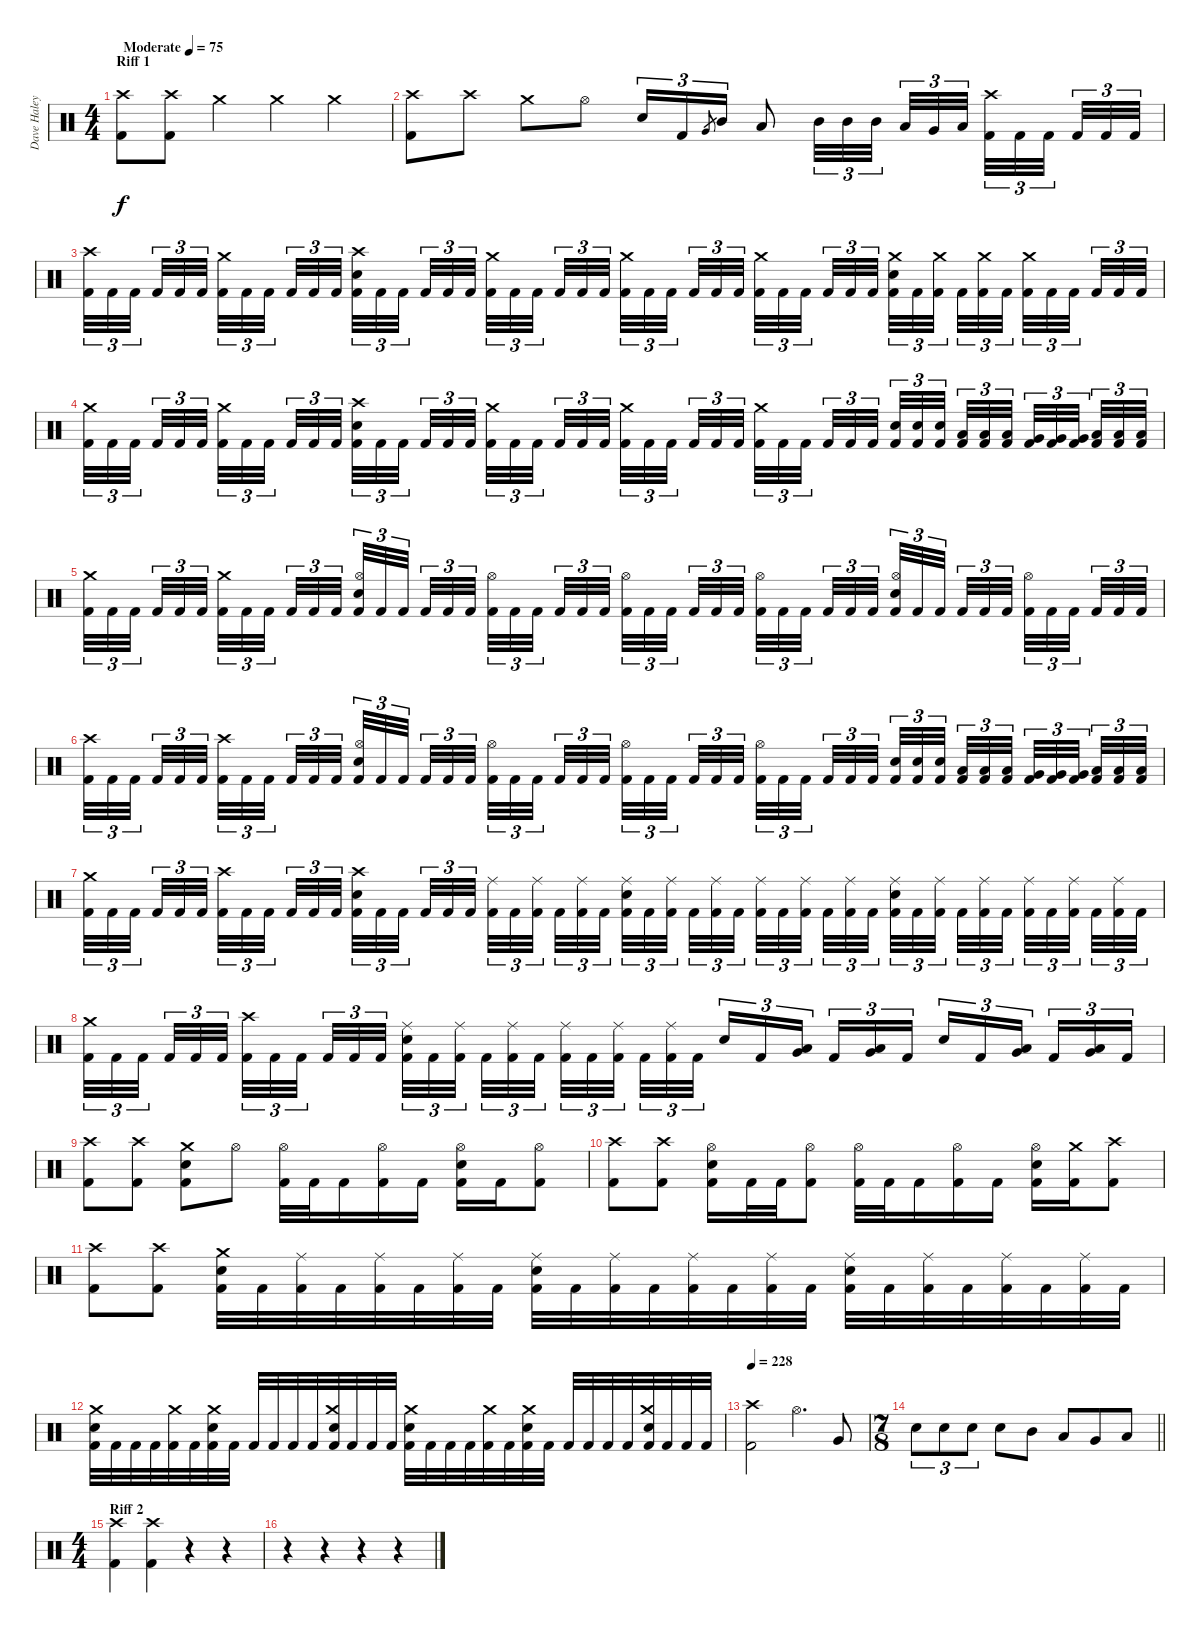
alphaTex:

\track ("Dave Haley" "Dave Haley") {instrument percussion}
\staff {score}
\articulation defaults
\ts (4 4)
\section ("" "Riff 1")
\tempo (75 "Moderate")
\clef neutral
\ks c
("Crash high (hit)" "Kick (hit) 2").8{dy f} ("Crash high (hit)" "Kick (hit) 2").8 "Crash medium (hit)".4 "Crash medium (hit)".4 "Crash medium (hit)".4 |
("Crash high (hit)" "Kick (hit) 2").8 "Crash high (hit)".8 "Crash medium (hit)".8 "Hi-Hat (open)".8 "Snare (hit) 2".16{tu (3 2)} "Kick (hit) 2".16{tu (3 2)} "Very Low Tom (hit)".8{gr} "Mid Tom (hit)".16{tu (3 2)} "Low Tom (hit)".8 "Mid Tom (hit)".32{tu (3 2)} "Mid Tom (hit)".32{tu (3 2)} "Mid Tom (hit)".32{tu (3 2) beam splitsecondary} "Low Tom (hit)".32{tu (3 2)} "Very Low Tom (hit)".32{tu (3 2)} "Low Floor Tom (hit)".32{tu (3 2) beam splitsecondary} ("Crash high (hit)" "Kick (hit) 2").32{tu (3 2)} "Kick (hit) 2".32{tu (3 2)} "Kick (hit) 2".32{tu (3 2) beam splitsecondary} "Kick (hit) 2".32{tu (3 2)} "Kick (hit) 2".32{tu (3 2)} "Kick (hit) 2".32{tu (3 2)} |
("Crash high (hit)" "Kick (hit) 2").32{tu (3 2)} "Kick (hit) 2".32{tu (3 2)} "Kick (hit) 2".32{tu (3 2) beam splitsecondary} "Kick (hit) 2".32{tu (3 2)} "Kick (hit) 2".32{tu (3 2)} "Kick (hit) 2".32{tu (3 2) beam splitsecondary} ("Crash medium (hit)" "Kick (hit) 2").32{tu (3 2)} "Kick (hit) 2".32{tu (3 2)} "Kick (hit) 2".32{tu (3 2) beam splitsecondary} "Kick (hit) 2".32{tu (3 2)} "Kick (hit) 2".32{tu (3 2)} "Kick (hit) 2".32{tu (3 2)} ("Crash high (hit)" "Snare (hit) 2" "Kick (hit) 2").32{tu (3 2)} "Kick (hit) 2".32{tu (3 2)} "Kick (hit) 2".32{tu (3 2) beam splitsecondary} "Kick (hit) 2".32{tu (3 2)} "Kick (hit) 2".32{tu (3 2)} "Kick (hit) 2".32{tu (3 2) beam splitsecondary} ("Crash medium (hit)" "Kick (hit) 2").32{tu (3 2)} "Kick (hit) 2".32{tu (3 2)} "Kick (hit) 2".32{tu (3 2) beam splitsecondary} "Kick (hit) 2".32{tu (3 2)} "Kick (hit) 2".32{tu (3 2)} "Kick (hit) 2".32{tu (3 2)} ("Crash medium (hit)" "Kick (hit) 2").32{tu (3 2)} "Kick (hit) 2".32{tu (3 2)} "Kick (hit) 2".32{tu (3 2) beam splitsecondary} "Kick (hit) 2".32{tu (3 2)} "Kick (hit) 2".32{tu (3 2)} "Kick (hit) 2".32{tu (3 2) beam splitsecondary} ("Crash medium (hit)" "Kick (hit) 2").32{tu (3 2)} "Kick (hit) 2".32{tu (3 2)} "Kick (hit) 2".32{tu (3 2) beam splitsecondary} "Kick (hit) 2".32{tu (3 2)} "Kick (hit) 2".32{tu (3 2)} "Kick (hit) 2".32{tu (3 2)} ("Crash medium (hit)" "Snare (hit) 2" "Kick (hit) 2").32{tu (3 2)} "Kick (hit) 2".32{tu (3 2)} ("Crash medium (hit)" "Kick (hit) 2").32{tu (3 2) beam splitsecondary} "Kick (hit) 2".32{tu (3 2)} ("Crash medium (hit)" "Kick (hit) 2").32{tu (3 2)} "Kick (hit) 2".32{tu (3 2) beam splitsecondary} ("Crash medium (hit)" "Kick (hit) 2").32{tu (3 2)} "Kick (hit) 2".32{tu (3 2)} "Kick (hit) 2".32{tu (3 2) beam splitsecondary} "Kick (hit) 2".32{tu (3 2)} "Kick (hit) 2".32{tu (3 2)} "Kick (hit) 2".32{tu (3 2)} |
("Crash medium (hit)" "Kick (hit) 2").32{tu (3 2)} "Kick (hit) 2".32{tu (3 2)} "Kick (hit) 2".32{tu (3 2) beam splitsecondary} "Kick (hit) 2".32{tu (3 2)} "Kick (hit) 2".32{tu (3 2)} "Kick (hit) 2".32{tu (3 2) beam splitsecondary} ("Crash medium (hit)" "Kick (hit) 2").32{tu (3 2)} "Kick (hit) 2".32{tu (3 2)} "Kick (hit) 2".32{tu (3 2) beam splitsecondary} "Kick (hit) 2".32{tu (3 2)} "Kick (hit) 2".32{tu (3 2)} "Kick (hit) 2".32{tu (3 2)} ("Crash high (hit)" "Snare (hit) 2" "Kick (hit) 2").32{tu (3 2)} "Kick (hit) 2".32{tu (3 2)} "Kick (hit) 2".32{tu (3 2) beam splitsecondary} "Kick (hit) 2".32{tu (3 2)} "Kick (hit) 2".32{tu (3 2)} "Kick (hit) 2".32{tu (3 2) beam splitsecondary} ("Crash medium (hit)" "Kick (hit) 2").32{tu (3 2)} "Kick (hit) 2".32{tu (3 2)} "Kick (hit) 2".32{tu (3 2) beam splitsecondary} "Kick (hit) 2".32{tu (3 2)} "Kick (hit) 2".32{tu (3 2)} "Kick (hit) 2".32{tu (3 2)} ("Crash medium (hit)" "Kick (hit) 2").32{tu (3 2)} "Kick (hit) 2".32{tu (3 2)} "Kick (hit) 2".32{tu (3 2) beam splitsecondary} "Kick (hit) 2".32{tu (3 2)} "Kick (hit) 2".32{tu (3 2)} "Kick (hit) 2".32{tu (3 2) beam splitsecondary} ("Crash medium (hit)" "Kick (hit) 2").32{tu (3 2)} "Kick (hit) 2".32{tu (3 2)} "Kick (hit) 2".32{tu (3 2) beam splitsecondary} "Kick (hit) 2".32{tu (3 2)} "Kick (hit) 2".32{tu (3 2)} "Kick (hit) 2".32{tu (3 2)} ("Snare (hit) 2" "Kick (hit) 2").32{tu (3 2)} ("Snare (hit) 2" "Kick (hit) 2").32{tu (3 2)} ("Snare (hit) 2" "Kick (hit) 2").32{tu (3 2) beam splitsecondary} ("Low Tom (hit)" "Kick (hit) 2").32{tu (3 2)} ("Low Tom (hit)" "Kick (hit) 2").32{tu (3 2)} ("Low Tom (hit)" "Kick (hit) 2").32{tu (3 2) beam splitsecondary} ("Very Low Tom (hit)" "Kick (hit) 2").32{tu (3 2)} ("Very Low Tom (hit)" "Kick (hit) 2").32{tu (3 2)} ("Very Low Tom (hit)" "Kick (hit) 2").32{tu (3 2) beam splitsecondary} ("Low Floor Tom (hit)" "Kick (hit) 2").32{tu (3 2)} ("Low Floor Tom (hit)" "Kick (hit) 2").32{tu (3 2)} ("Low Floor Tom (hit)" "Kick (hit) 2").32{tu (3 2)} |
("Crash medium (hit)" "Kick (hit) 2").32{tu (3 2)} "Kick (hit) 2".32{tu (3 2)} "Kick (hit) 2".32{tu (3 2) beam splitsecondary} "Kick (hit) 2".32{tu (3 2)} "Kick (hit) 2".32{tu (3 2)} "Kick (hit) 2".32{tu (3 2) beam splitsecondary} ("Crash medium (hit)" "Kick (hit) 2").32{tu (3 2)} "Kick (hit) 2".32{tu (3 2)} "Kick (hit) 2".32{tu (3 2) beam splitsecondary} "Kick (hit) 2".32{tu (3 2)} "Kick (hit) 2".32{tu (3 2)} "Kick (hit) 2".32{tu (3 2)} ("Hi-Hat (open)" "Snare (hit) 2" "Kick (hit) 2").32{tu (3 2)} "Kick (hit) 2".32{tu (3 2)} "Kick (hit) 2".32{tu (3 2) beam splitsecondary} "Kick (hit) 2".32{tu (3 2)} "Kick (hit) 2".32{tu (3 2)} "Kick (hit) 2".32{tu (3 2) beam splitsecondary} ("Hi-Hat (open)" "Kick (hit) 2").32{tu (3 2)} "Kick (hit) 2".32{tu (3 2)} "Kick (hit) 2".32{tu (3 2) beam splitsecondary} "Kick (hit) 2".32{tu (3 2)} "Kick (hit) 2".32{tu (3 2)} "Kick (hit) 2".32{tu (3 2)} ("Hi-Hat (open)" "Kick (hit) 2").32{tu (3 2)} "Kick (hit) 2".32{tu (3 2)} "Kick (hit) 2".32{tu (3 2) beam splitsecondary} "Kick (hit) 2".32{tu (3 2)} "Kick (hit) 2".32{tu (3 2)} "Kick (hit) 2".32{tu (3 2) beam splitsecondary} ("Hi-Hat (open)" "Kick (hit) 2").32{tu (3 2)} "Kick (hit) 2".32{tu (3 2)} "Kick (hit) 2".32{tu (3 2) beam splitsecondary} "Kick (hit) 2".32{tu (3 2)} "Kick (hit) 2".32{tu (3 2)} "Kick (hit) 2".32{tu (3 2)} ("Hi-Hat (open)" "Snare (hit) 2" "Kick (hit) 2").32{tu (3 2)} "Kick (hit) 2".32{tu (3 2)} "Kick (hit) 2".32{tu (3 2) beam splitsecondary} "Kick (hit) 2".32{tu (3 2)} "Kick (hit) 2".32{tu (3 2)} "Kick (hit) 2".32{tu (3 2) beam splitsecondary} ("Hi-Hat (open)" "Kick (hit) 2").32{tu (3 2)} "Kick (hit) 2".32{tu (3 2)} "Kick (hit) 2".32{tu (3 2) beam splitsecondary} "Kick (hit) 2".32{tu (3 2)} "Kick (hit) 2".32{tu (3 2)} "Kick (hit) 2".32{tu (3 2)} |
("Crash high (hit)" "Kick (hit) 2").32{tu (3 2)} "Kick (hit) 2".32{tu (3 2)} "Kick (hit) 2".32{tu (3 2) beam splitsecondary} "Kick (hit) 2".32{tu (3 2)} "Kick (hit) 2".32{tu (3 2)} "Kick (hit) 2".32{tu (3 2) beam splitsecondary} ("Crash high (hit)" "Kick (hit) 2").32{tu (3 2)} "Kick (hit) 2".32{tu (3 2)} "Kick (hit) 2".32{tu (3 2) beam splitsecondary} "Kick (hit) 2".32{tu (3 2)} "Kick (hit) 2".32{tu (3 2)} "Kick (hit) 2".32{tu (3 2)} ("Hi-Hat (open)" "Snare (hit) 2" "Kick (hit) 2").32{tu (3 2)} "Kick (hit) 2".32{tu (3 2)} "Kick (hit) 2".32{tu (3 2) beam splitsecondary} "Kick (hit) 2".32{tu (3 2)} "Kick (hit) 2".32{tu (3 2)} "Kick (hit) 2".32{tu (3 2) beam splitsecondary} ("Hi-Hat (open)" "Kick (hit) 2").32{tu (3 2)} "Kick (hit) 2".32{tu (3 2)} "Kick (hit) 2".32{tu (3 2) beam splitsecondary} "Kick (hit) 2".32{tu (3 2)} "Kick (hit) 2".32{tu (3 2)} "Kick (hit) 2".32{tu (3 2)} ("Hi-Hat (open)" "Kick (hit) 2").32{tu (3 2)} "Kick (hit) 2".32{tu (3 2)} "Kick (hit) 2".32{tu (3 2) beam splitsecondary} "Kick (hit) 2".32{tu (3 2)} "Kick (hit) 2".32{tu (3 2)} "Kick (hit) 2".32{tu (3 2) beam splitsecondary} ("Hi-Hat (open)" "Kick (hit) 2").32{tu (3 2)} "Kick (hit) 2".32{tu (3 2)} "Kick (hit) 2".32{tu (3 2) beam splitsecondary} "Kick (hit) 2".32{tu (3 2)} "Kick (hit) 2".32{tu (3 2)} "Kick (hit) 2".32{tu (3 2)} ("Snare (hit) 2" "Kick (hit) 2").32{tu (3 2)} ("Snare (hit) 2" "Kick (hit) 2").32{tu (3 2)} ("Snare (hit) 2" "Kick (hit) 2").32{tu (3 2) beam splitsecondary} ("Low Tom (hit)" "Kick (hit) 2").32{tu (3 2)} ("Low Tom (hit)" "Kick (hit) 2").32{tu (3 2)} ("Low Tom (hit)" "Kick (hit) 2").32{tu (3 2) beam splitsecondary} ("Very Low Tom (hit)" "Kick (hit) 2").32{tu (3 2)} ("Very Low Tom (hit)" "Kick (hit) 2").32{tu (3 2)} ("Very Low Tom (hit)" "Kick (hit) 2").32{tu (3 2) beam splitsecondary} ("Low Floor Tom (hit)" "Kick (hit) 2").32{tu (3 2)} ("Low Floor Tom (hit)" "Kick (hit) 2").32{tu (3 2)} ("Low Floor Tom (hit)" "Kick (hit) 2").32{tu (3 2)} |
("Crash medium (hit)" "Kick (hit) 2").32{tu (3 2)} "Kick (hit) 2".32{tu (3 2)} "Kick (hit) 2".32{tu (3 2) beam splitsecondary} "Kick (hit) 2".32{tu (3 2)} "Kick (hit) 2".32{tu (3 2)} "Kick (hit) 2".32{tu (3 2) beam splitsecondary} ("Crash high (hit)" "Kick (hit) 2").32{tu (3 2)} "Kick (hit) 2".32{tu (3 2)} "Kick (hit) 2".32{tu (3 2) beam splitsecondary} "Kick (hit) 2".32{tu (3 2)} "Kick (hit) 2".32{tu (3 2)} "Kick (hit) 2".32{tu (3 2)} ("Crash high (hit)" "Snare (hit) 2" "Kick (hit) 2").32{tu (3 2)} "Kick (hit) 2".32{tu (3 2)} "Kick (hit) 2".32{tu (3 2) beam splitsecondary} "Kick (hit) 2".32{tu (3 2)} "Kick (hit) 2".32{tu (3 2)} "Kick (hit) 2".32{tu (3 2) beam splitsecondary} ("Ride (middle)" "Kick (hit) 2").32{tu (3 2)} "Kick (hit) 2".32{tu (3 2)} ("Ride (middle)" "Kick (hit) 2").32{tu (3 2) beam splitsecondary} "Kick (hit) 2".32{tu (3 2)} ("Ride (middle)" "Kick (hit) 2").32{tu (3 2)} "Kick (hit) 2".32{tu (3 2)} ("Ride (middle)" "Snare (hit) 2" "Kick (hit) 2").32{tu (3 2)} "Kick (hit) 2".32{tu (3 2)} ("Ride (middle)" "Kick (hit) 2").32{tu (3 2) beam splitsecondary} "Kick (hit) 2".32{tu (3 2)} ("Ride (middle)" "Kick (hit) 2").32{tu (3 2)} "Kick (hit) 2".32{tu (3 2) beam splitsecondary} ("Ride (middle)" "Kick (hit) 2").32{tu (3 2)} "Kick (hit) 2".32{tu (3 2)} ("Ride (middle)" "Kick (hit) 2").32{tu (3 2) beam splitsecondary} "Kick (hit) 2".32{tu (3 2)} ("Ride (middle)" "Kick (hit) 2").32{tu (3 2)} "Kick (hit) 2".32{tu (3 2)} ("Ride (middle)" "Snare (hit) 2" "Kick (hit) 2").32{tu (3 2)} "Kick (hit) 2".32{tu (3 2)} ("Ride (middle)" "Kick (hit) 2").32{tu (3 2) beam splitsecondary} "Kick (hit) 2".32{tu (3 2)} ("Ride (middle)" "Kick (hit) 2").32{tu (3 2)} "Kick (hit) 2".32{tu (3 2) beam splitsecondary} ("Ride (middle)" "Kick (hit) 2").32{tu (3 2)} "Kick (hit) 2".32{tu (3 2)} ("Ride (middle)" "Kick (hit) 2").32{tu (3 2) beam splitsecondary} "Kick (hit) 2".32{tu (3 2)} ("Ride (middle)" "Kick (hit) 2").32{tu (3 2)} "Kick (hit) 2".32{tu (3 2)} |
("Crash medium (hit)" "Kick (hit) 2").32{tu (3 2)} "Kick (hit) 2".32{tu (3 2)} "Kick (hit) 2".32{tu (3 2) beam splitsecondary} "Kick (hit) 2".32{tu (3 2)} "Kick (hit) 2".32{tu (3 2)} "Kick (hit) 2".32{tu (3 2) beam splitsecondary} ("Crash high (hit)" "Kick (hit) 2").32{tu (3 2)} "Kick (hit) 2".32{tu (3 2)} "Kick (hit) 2".32{tu (3 2) beam splitsecondary} "Kick (hit) 2".32{tu (3 2)} "Kick (hit) 2".32{tu (3 2)} "Kick (hit) 2".32{tu (3 2)} ("Ride (middle)" "Snare (hit) 2" "Kick (hit) 2").32{tu (3 2)} "Kick (hit) 2".32{tu (3 2)} ("Ride (middle)" "Kick (hit) 2").32{tu (3 2) beam splitsecondary} "Kick (hit) 2".32{tu (3 2)} ("Ride (middle)" "Kick (hit) 2").32{tu (3 2)} "Kick (hit) 2".32{tu (3 2) beam splitsecondary} ("Ride (middle)" "Kick (hit) 2").32{tu (3 2)} "Kick (hit) 2".32{tu (3 2)} ("Ride (middle)" "Kick (hit) 2").32{tu (3 2) beam splitsecondary} "Kick (hit) 2".32{tu (3 2)} ("Ride (middle)" "Kick (hit) 2").32{tu (3 2)} "Kick (hit) 2".32{tu (3 2)} "Snare (hit) 2".16{tu (3 2)} "Kick (hit) 2".16{tu (3 2)} ("Very Low Tom (hit)" "Low Tom (hit)").16{tu (3 2) beam splitsecondary} "Kick (hit) 2".16{tu (3 2)} ("Very Low Tom (hit)" "Low Tom (hit)").16{tu (3 2)} "Kick (hit) 2".16{tu (3 2)} "Snare (hit) 2".16{tu (3 2)} "Kick (hit) 2".16{tu (3 2)} ("Very Low Tom (hit)" "Low Tom (hit)").16{tu (3 2) beam splitsecondary} "Kick (hit) 2".16{tu (3 2)} ("Very Low Tom (hit)" "Low Tom (hit)").16{tu (3 2)} "Kick (hit) 2".16{tu (3 2)} |
("Crash high (hit)" "Kick (hit) 2").8 ("Crash high (hit)" "Kick (hit) 2").8 ("Crash medium (hit)" "Snare (hit) 2" "Kick (hit) 2").8 "Hi-Hat (open)".8 ("Hi-Hat (open)" "Kick (hit) 2").32 "Kick (hit) 2".32 "Kick (hit) 2".16 ("Hi-Hat (open)" "Kick (hit) 2").16 "Kick (hit) 2".16 ("Hi-Hat (open)" "Snare (hit) 2" "Kick (hit) 2").16 "Kick (hit) 2".16 ("Hi-Hat (open)" "Kick (hit) 2").8 |
("Crash high (hit)" "Kick (hit) 2").8 ("Crash high (hit)" "Kick (hit) 2").8 ("Hi-Hat (open)" "Snare (hit) 2" "Kick (hit) 2").16 "Kick (hit) 2".32 "Kick (hit) 2".32 ("Hi-Hat (open)" "Kick (hit) 2").8 ("Hi-Hat (open)" "Kick (hit) 2").32 "Kick (hit) 2".32 "Kick (hit) 2".16 ("Hi-Hat (open)" "Kick (hit) 2").16 "Kick (hit) 2".16 ("Hi-Hat (open)" "Snare (hit) 2" "Kick (hit) 2").16 ("Crash medium (hit)" "Kick (hit) 2").16 ("Crash high (hit)" "Kick (hit) 2").8 |
("Crash high (hit)" "Kick (hit) 2").8 ("Crash high (hit)" "Kick (hit) 2").8 ("Crash medium (hit)" "Snare (hit) 2" "Kick (hit) 2").32 "Kick (hit) 2".32 ("Ride (middle)" "Kick (hit) 2").32 "Kick (hit) 2".32 ("Ride (middle)" "Kick (hit) 2").32 "Kick (hit) 2".32 ("Ride (middle)" "Kick (hit) 2").32 "Kick (hit) 2".32 ("Ride (middle)" "Snare (hit) 2" "Kick (hit) 2").32 "Kick (hit) 2".32 ("Ride (middle)" "Kick (hit) 2").32 "Kick (hit) 2".32 ("Ride (middle)" "Kick (hit) 2").32 "Kick (hit) 2".32 ("Ride (middle)" "Kick (hit) 2").32 "Kick (hit) 2".32 ("Ride (middle)" "Snare (hit) 2" "Kick (hit) 2").32 "Kick (hit) 2".32 ("Ride (middle)" "Kick (hit) 2").32 "Kick (hit) 2".32 ("Ride (middle)" "Kick (hit) 2").32 "Kick (hit) 2".32 ("Ride (middle)" "Kick (hit) 2").32 "Kick (hit) 2".32 |
("Crash medium (hit)" "Snare (hit) 2" "Kick (hit) 2").32 "Kick (hit) 2".32 "Kick (hit) 2".32 "Kick (hit) 2".32 ("Crash medium (hit)" "Kick (hit) 2").32 "Kick (hit) 2".32 ("Crash medium (hit)" "Snare (hit) 2" "Kick (hit) 2").32 "Kick (hit) 2".32 "Kick (hit) 2".32 "Kick (hit) 2".32 "Kick (hit) 2".32 "Kick (hit) 2".32 ("Crash medium (hit)" "Snare (hit) 2" "Kick (hit) 2").32 "Kick (hit) 2".32 "Kick (hit) 2".32 "Kick (hit) 2".32 ("Crash medium (hit)" "Snare (hit) 2" "Kick (hit) 2").32 "Kick (hit) 2".32 "Kick (hit) 2".32 "Kick (hit) 2".32 ("Crash medium (hit)" "Kick (hit) 2").32 "Kick (hit) 2".32 ("Crash medium (hit)" "Snare (hit) 2" "Kick (hit) 2").32 "Kick (hit) 2".32 "Kick (hit) 2".32 "Kick (hit) 2".32 "Kick (hit) 2".32 "Kick (hit) 2".32 ("Crash medium (hit)" "Snare (hit) 2" "Kick (hit) 2").32 "Kick (hit) 2".32 "Kick (hit) 2".32 "Kick (hit) 2".32 |
\tempo 228
("Crash high (hit)" "Kick (hit) 2").2 "Hi-Hat (open)".4{d} "Very Low Tom (hit)".8 |
\ts (7 8)
\barLineRight lightlight "Snare (hit) 2".8{tu (3 2)} "Snare (hit) 2".8{tu (3 2)} "Snare (hit) 2".8{tu (3 2)} "Snare (hit) 2".8 "Mid Tom (hit)".8 "Low Tom (hit)".8 "Very Low Tom (hit)".8 "Low Floor Tom (hit)".8
|
\ts (4 4)
\section ("" "Riff 2")
("Crash high (hit)" "Kick (hit) 2").4 ("Crash high (hit)" "Kick (hit) 2").4 r.4 r.4 |
r.4 r.4 r.4 r.4
